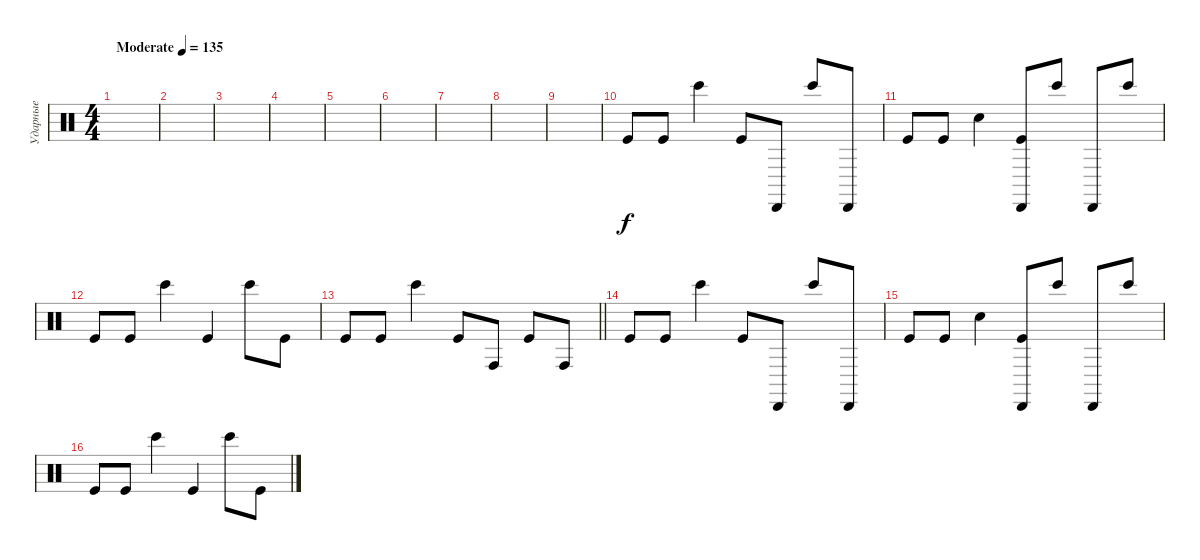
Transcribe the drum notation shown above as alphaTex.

\track ("Ударные" "Ударные") {instrument percussion}
\staff {score}
\articulation defaults
\ts (4 4)
\tempo (135 "Moderate")
\clef neutral
\ks c
|
|
|
|
|
|
|
|
|
"Kick (hit)".8 "Kick (hit)".8 "Bongo High (hit)".4 "Kick (hit)".8 "Cabasa (hit)".8 "Bongo High (hit)".8 "Cabasa (hit)".8 |
"Kick (hit)".8 "Kick (hit)".8 "Hand Clap (hit)".4 ("Kick (hit)" "Cabasa (hit)").8 "Bongo High (hit)".8 "Cabasa (hit)".8 "Bongo High (hit)".8 |
"Kick (hit)".8 "Kick (hit)".8 "Bongo High (hit)".4 "Kick (hit)".4 "Bongo High (hit)".8 "Kick (hit)".8 |
\barLineRight lightlight "Kick (hit)".8 "Kick (hit)".8 "Bongo High (hit)".4 "Kick (hit)".8 "Conga high (hit)".8 "Kick (hit)".8 "Conga high (hit)".8
|
"Kick (hit)".8 "Kick (hit)".8 "Bongo High (hit)".4 "Kick (hit)".8 "Cabasa (hit)".8 "Bongo High (hit)".8 "Cabasa (hit)".8 |
"Kick (hit)".8 "Kick (hit)".8 "Hand Clap (hit)".4 ("Kick (hit)" "Cabasa (hit)").8 "Bongo High (hit)".8 "Cabasa (hit)".8 "Bongo High (hit)".8 |
"Kick (hit)".8 "Kick (hit)".8 "Bongo High (hit)".4 "Kick (hit)".4 "Bongo High (hit)".8 "Kick (hit)".8
